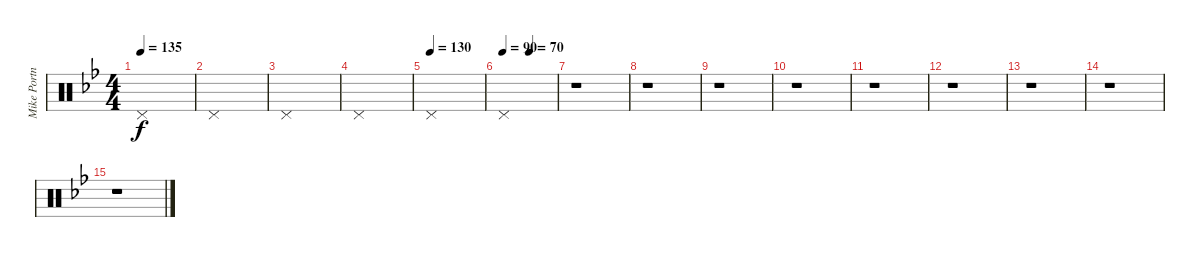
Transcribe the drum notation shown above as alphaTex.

\track ("Mike Portnoy" "Mike Portn") {instrument percussion}
\staff {score}
\articulation defaults
\ts (4 4)
\tempo 135
\clef neutral
\ks bb "Pedal Hi-Hat (hit)".1{dy f}
|
"Pedal Hi-Hat (hit)".1 |
"Pedal Hi-Hat (hit)".1 |
"Pedal Hi-Hat (hit)".1 |
\tempo (130)
"Pedal Hi-Hat (hit)".1 |
\tempo 90
\tempo (70 0.5)
"Pedal Hi-Hat (hit)".1 |
r.1 |
r.1 |
r.1 |
r.1 |
r.1 |
r.1 |
r.1 |
r.1 |
r.1
